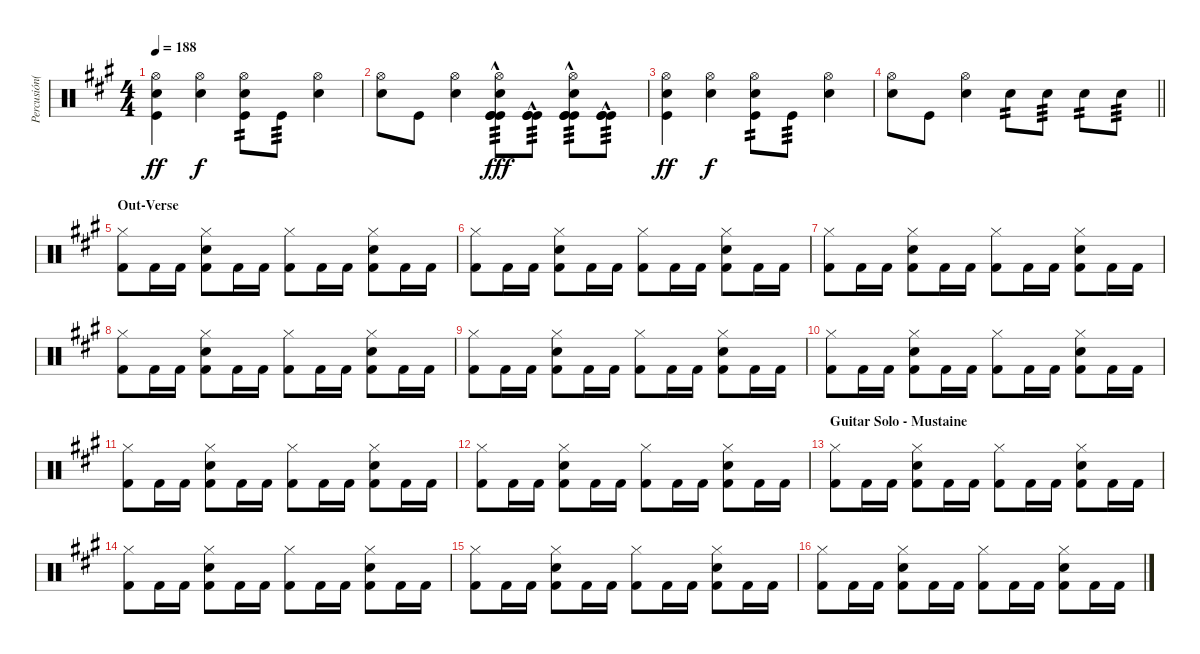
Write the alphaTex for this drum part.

\track ("Percusión(S.Drover)" "Percusión(") {instrument percussion}
\staff {score}
\articulation defaults
\ts (4 4)
\tempo 188
\clef neutral
\ks a
("Hi-Hat (open)" "Snare (hit) 2" "Kick (hit)").4{dy ff} ("Hi-Hat (open)" "Snare (hit) 2").4{dy f} ("Hi-Hat (open)" "Snare (hit) 2" "Kick (hit)").8{tp 2} "Kick (hit)".8{tp 3} ("Hi-Hat (open)" "Snare (hit) 2").4 |
("Hi-Hat (open)" "Snare (hit) 2").8 "Kick (hit)".8 ("Hi-Hat (open)" "Snare (hit) 2").4 ("Hi-Hat (open)" "Snare (hit) 2" "Kick (hit)"{hac} "Kick (hit)" "Kick (hit)").8{tp 3 dy fff} ("Kick (hit)"{hac} "Kick (hit)" "Kick (hit)").8{tp 3} ("Hi-Hat (open)" "Snare (hit) 2" "Kick (hit)"{hac} "Kick (hit)" "Kick (hit)").8{tp 3} ("Kick (hit)"{hac} "Kick (hit)" "Kick (hit)").8{tp 3} |
("Hi-Hat (open)" "Snare (hit) 2" "Kick (hit)").4{dy ff} ("Hi-Hat (open)" "Snare (hit) 2").4{dy f} ("Hi-Hat (open)" "Snare (hit) 2" "Kick (hit)").8{tp 2} "Kick (hit)".8{tp 3} ("Hi-Hat (open)" "Snare (hit) 2").4 |
\barLineRight lightlight
("Hi-Hat (open)" "Snare (hit) 2").8 "Kick (hit)".8 ("Hi-Hat (open)" "Snare (hit) 2").4 "Snare (hit) 2".8{tp 2} "Snare (hit) 2".8{tp 3} "Snare (hit) 2".8{tp 2} "Snare (hit) 2".8{tp 3} |
\section ("" "Out-Verse")
("Hi-Hat (closed)" "Kick (hit) 2").8 "Kick (hit) 2".16 "Kick (hit) 2".16 ("Hi-Hat (closed)" "Electric Snare (hit)" "Kick (hit) 2").8 "Kick (hit) 2".16 "Kick (hit) 2".16 ("Hi-Hat (closed)" "Kick (hit) 2").8 "Kick (hit) 2".16 "Kick (hit) 2".16 ("Hi-Hat (closed)" "Electric Snare (hit)" "Kick (hit) 2").8 "Kick (hit) 2".16 "Kick (hit) 2".16 |
("Hi-Hat (closed)" "Kick (hit) 2").8 "Kick (hit) 2".16 "Kick (hit) 2".16 ("Hi-Hat (closed)" "Electric Snare (hit)" "Kick (hit) 2").8 "Kick (hit) 2".16 "Kick (hit) 2".16 ("Hi-Hat (closed)" "Kick (hit) 2").8 "Kick (hit) 2".16 "Kick (hit) 2".16 ("Hi-Hat (closed)" "Electric Snare (hit)" "Kick (hit) 2").8 "Kick (hit) 2".16 "Kick (hit) 2".16 |
("Hi-Hat (closed)" "Kick (hit) 2").8 "Kick (hit) 2".16 "Kick (hit) 2".16 ("Hi-Hat (closed)" "Electric Snare (hit)" "Kick (hit) 2").8 "Kick (hit) 2".16 "Kick (hit) 2".16 ("Hi-Hat (closed)" "Kick (hit) 2").8 "Kick (hit) 2".16 "Kick (hit) 2".16 ("Hi-Hat (closed)" "Electric Snare (hit)" "Kick (hit) 2").8 "Kick (hit) 2".16 "Kick (hit) 2".16 |
("Hi-Hat (closed)" "Kick (hit) 2").8 "Kick (hit) 2".16 "Kick (hit) 2".16 ("Hi-Hat (closed)" "Electric Snare (hit)" "Kick (hit) 2").8 "Kick (hit) 2".16 "Kick (hit) 2".16 ("Hi-Hat (closed)" "Kick (hit) 2").8 "Kick (hit) 2".16 "Kick (hit) 2".16 ("Hi-Hat (closed)" "Electric Snare (hit)" "Kick (hit) 2").8 "Kick (hit) 2".16 "Kick (hit) 2".16 |
("Hi-Hat (closed)" "Kick (hit) 2").8 "Kick (hit) 2".16 "Kick (hit) 2".16 ("Hi-Hat (closed)" "Electric Snare (hit)" "Kick (hit) 2").8 "Kick (hit) 2".16 "Kick (hit) 2".16 ("Hi-Hat (closed)" "Kick (hit) 2").8 "Kick (hit) 2".16 "Kick (hit) 2".16 ("Hi-Hat (closed)" "Electric Snare (hit)" "Kick (hit) 2").8 "Kick (hit) 2".16 "Kick (hit) 2".16 |
("Hi-Hat (closed)" "Kick (hit) 2").8 "Kick (hit) 2".16 "Kick (hit) 2".16 ("Hi-Hat (closed)" "Electric Snare (hit)" "Kick (hit) 2").8 "Kick (hit) 2".16 "Kick (hit) 2".16 ("Hi-Hat (closed)" "Kick (hit) 2").8 "Kick (hit) 2".16 "Kick (hit) 2".16 ("Hi-Hat (closed)" "Electric Snare (hit)" "Kick (hit) 2").8 "Kick (hit) 2".16 "Kick (hit) 2".16 |
("Hi-Hat (closed)" "Kick (hit) 2").8 "Kick (hit) 2".16 "Kick (hit) 2".16 ("Hi-Hat (closed)" "Electric Snare (hit)" "Kick (hit) 2").8 "Kick (hit) 2".16 "Kick (hit) 2".16 ("Hi-Hat (closed)" "Kick (hit) 2").8 "Kick (hit) 2".16 "Kick (hit) 2".16 ("Hi-Hat (closed)" "Electric Snare (hit)" "Kick (hit) 2").8 "Kick (hit) 2".16 "Kick (hit) 2".16 |
("Hi-Hat (closed)" "Kick (hit) 2").8 "Kick (hit) 2".16 "Kick (hit) 2".16 ("Hi-Hat (closed)" "Electric Snare (hit)" "Kick (hit) 2").8 "Kick (hit) 2".16 "Kick (hit) 2".16 ("Hi-Hat (closed)" "Kick (hit) 2").8 "Kick (hit) 2".16 "Kick (hit) 2".16 ("Hi-Hat (closed)" "Electric Snare (hit)" "Kick (hit) 2").8 "Kick (hit) 2".16 "Kick (hit) 2".16 |
\section ("" "Guitar Solo - Mustaine")
("Hi-Hat (closed)" "Kick (hit) 2").8 "Kick (hit) 2".16 "Kick (hit) 2".16 ("Hi-Hat (closed)" "Electric Snare (hit)" "Kick (hit) 2").8 "Kick (hit) 2".16 "Kick (hit) 2".16 ("Hi-Hat (closed)" "Kick (hit) 2").8 "Kick (hit) 2".16 "Kick (hit) 2".16 ("Hi-Hat (closed)" "Electric Snare (hit)" "Kick (hit) 2").8 "Kick (hit) 2".16 "Kick (hit) 2".16 |
("Hi-Hat (closed)" "Kick (hit) 2").8 "Kick (hit) 2".16 "Kick (hit) 2".16 ("Hi-Hat (closed)" "Electric Snare (hit)" "Kick (hit) 2").8 "Kick (hit) 2".16 "Kick (hit) 2".16 ("Hi-Hat (closed)" "Kick (hit) 2").8 "Kick (hit) 2".16 "Kick (hit) 2".16 ("Hi-Hat (closed)" "Electric Snare (hit)" "Kick (hit) 2").8 "Kick (hit) 2".16 "Kick (hit) 2".16 |
("Hi-Hat (closed)" "Kick (hit) 2").8 "Kick (hit) 2".16 "Kick (hit) 2".16 ("Hi-Hat (closed)" "Electric Snare (hit)" "Kick (hit) 2").8 "Kick (hit) 2".16 "Kick (hit) 2".16 ("Hi-Hat (closed)" "Kick (hit) 2").8 "Kick (hit) 2".16 "Kick (hit) 2".16 ("Hi-Hat (closed)" "Electric Snare (hit)" "Kick (hit) 2").8 "Kick (hit) 2".16 "Kick (hit) 2".16 |
("Hi-Hat (closed)" "Kick (hit) 2").8 "Kick (hit) 2".16 "Kick (hit) 2".16 ("Hi-Hat (closed)" "Electric Snare (hit)" "Kick (hit) 2").8 "Kick (hit) 2".16 "Kick (hit) 2".16 ("Hi-Hat (closed)" "Kick (hit) 2").8 "Kick (hit) 2".16 "Kick (hit) 2".16 ("Hi-Hat (closed)" "Electric Snare (hit)" "Kick (hit) 2").8 "Kick (hit) 2".16 "Kick (hit) 2".16
